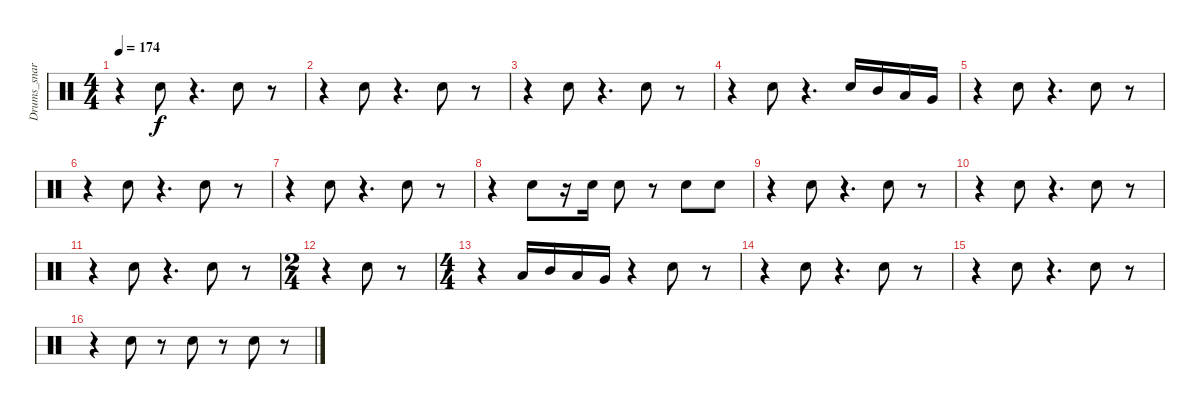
\track ("Drums_snare&tom" "Drums_snar") {instrument percussion}
\staff {score}
\articulation defaults
\ts (4 4)
\tempo 174
\clef neutral
\ks c
r.4{dy f} "Electric Snare (hit)".8 r.4{d} "Electric Snare (hit)".8 r.8 |
r.4 "Electric Snare (hit)".8 r.4{d} "Electric Snare (hit)".8 r.8 |
r.4 "Electric Snare (hit)".8 r.4{d} "Electric Snare (hit)".8 r.8 |
r.4 "Electric Snare (hit)".8 r.4{d} "Electric Snare (hit)".16 "Mid Tom (hit)".16 "Low Tom (hit)".16 "Very Low Tom (hit)".16 |
r.4 "Electric Snare (hit)".8 r.4{d} "Electric Snare (hit)".8 r.8 |
r.4 "Electric Snare (hit)".8 r.4{d} "Electric Snare (hit)".8 r.8 |
r.4 "Electric Snare (hit)".8 r.4{d} "Electric Snare (hit)".8 r.8 |
r.4 "Electric Snare (hit)".8 r.16 "Electric Snare (hit)".16 "Electric Snare (hit)".8 r.8 "Electric Snare (hit)".8 "Electric Snare (hit)".8 |
r.4 "Electric Snare (hit)".8 r.4{d} "Electric Snare (hit)".8 r.8 |
r.4 "Electric Snare (hit)".8 r.4{d} "Electric Snare (hit)".8 r.8 |
r.4 "Electric Snare (hit)".8 r.4{d} "Electric Snare (hit)".8 r.8 |
\ts (2 4)
r.4 "Electric Snare (hit)".8 r.8 |
\ts (4 4)
r.4 "Low Floor Tom (hit)".16 "Mid Tom (hit)".16 "Low Tom (hit)".16 "Very Low Tom (hit)".16 r.4 "Electric Snare (hit)".8 r.8 |
r.4 "Electric Snare (hit)".8 r.4{d} "Electric Snare (hit)".8 r.8 |
r.4 "Electric Snare (hit)".8 r.4{d} "Electric Snare (hit)".8 r.8 |
r.4 "Electric Snare (hit)".8 r.8 "Electric Snare (hit)".8 r.8 "Electric Snare (hit)".8 r.8
